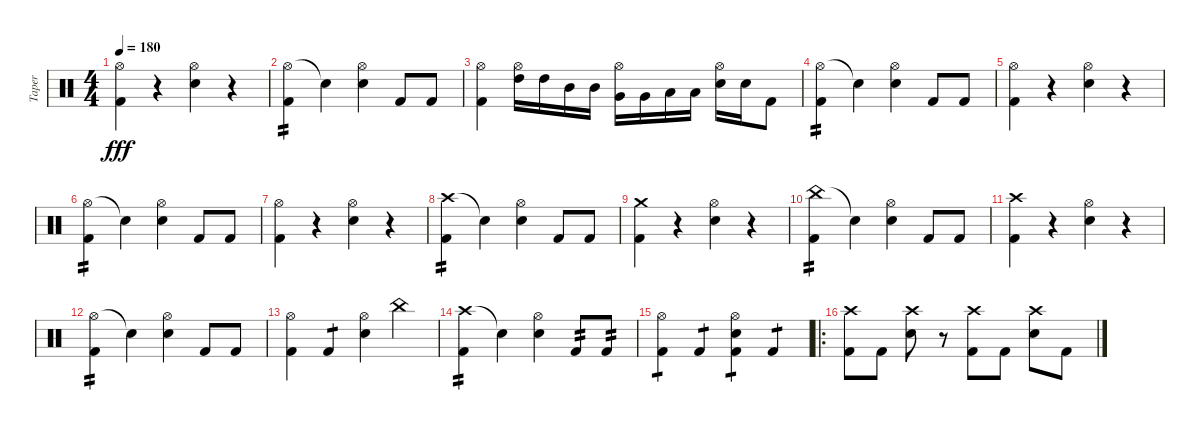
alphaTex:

\track ("Taper" "Taper") {instrument percussion}
\staff {score}
\articulation defaults
\ts (4 4)
\tempo 180
\clef neutral
\ks c
("Hi-Hat (open)" "Kick (hit) 2").4{dy fff} r.4 ("Hi-Hat (open)" "Snare (hit) 2").4 r.4 |
("Hi-Hat (open)" "Kick (hit) 2").4{tp 2} "Snare (hit)"{t}.4 ("Hi-Hat (open)" "Snare (hit) 2").4 "Kick (hit) 2".8 "Kick (hit) 2".8 |
("Hi-Hat (open)" "Kick (hit) 2").4 ("Hi-Hat (open)" "High Tom (hit)").16 "High Tom (hit)".16 "Mid Tom (hit)".16 "Mid Tom (hit)".16 ("Hi-Hat (open)" "Very Low Tom (hit)").16 "Very Low Tom (hit)".16 "Low Floor Tom (hit)".16 "Low Floor Tom (hit)".16 ("Hi-Hat (open)" "Snare (hit) 2").16 "Snare (hit) 2".16 "Kick (hit) 2".8 |
("Hi-Hat (open)" "Kick (hit) 2").4{tp 2} "Snare (hit)"{t}.4 ("Hi-Hat (open)" "Snare (hit) 2").4 "Kick (hit) 2".8 "Kick (hit) 2".8 |
("Hi-Hat (open)" "Kick (hit) 2").4 r.4 ("Hi-Hat (open)" "Snare (hit) 2").4 r.4 |
("Hi-Hat (open)" "Kick (hit) 2").4{tp 2} "Snare (hit)"{t}.4 ("Hi-Hat (open)" "Snare (hit) 2").4 "Kick (hit) 2".8 "Kick (hit) 2".8 |
("Hi-Hat (open)" "Kick (hit) 2").4 r.4 ("Hi-Hat (open)" "Snare (hit) 2").4 r.4 |
("Crash high (hit)" "Kick (hit) 2").4{tp 2} "Snare (hit)"{t}.4 ("Hi-Hat (open)" "Snare (hit) 2").4 "Kick (hit) 2".8 "Kick (hit) 2".8 |
("Crash medium (hit)" "Kick (hit) 2").4 r.4 ("Hi-Hat (open)" "Snare (hit) 2").4 r.4 |
("China (hit)" "Kick (hit) 2").4{tp 2} "Snare (hit)"{t}.4 ("Hi-Hat (open)" "Snare (hit) 2").4 "Kick (hit) 2".8 "Kick (hit) 2".8 |
("Crash high (hit)" "Kick (hit) 2").4 r.4 ("Hi-Hat (open)" "Snare (hit) 2").4 r.4 |
("Hi-Hat (open)" "Kick (hit) 2").4{tp 2} "Snare (hit)"{t}.4 ("Hi-Hat (open)" "Snare (hit) 2").4 "Kick (hit) 2".8 "Kick (hit) 2".8 |
("Hi-Hat (open)" "Kick (hit) 2").4 "Kick (hit) 2".4{tp 1} ("Hi-Hat (open)" "Snare (hit) 2").4 "China (hit)".4 |
("Crash high (hit)" "Kick (hit) 2").4{tp 2} "Snare (hit)"{t}.4 ("Hi-Hat (open)" "Snare (hit) 2").4 "Kick (hit) 2".8{tp 2} "Kick (hit) 2".8{tp 2} |
("Hi-Hat (open)" "Kick (hit) 2").4{tp 1} "Kick (hit) 2".4{tp 1} ("Hi-Hat (open)" "Snare (hit) 2" "Kick (hit) 2").4{tp 1} "Kick (hit) 2".4{tp 1} |
\ro
("Crash high (hit)" "Kick (hit) 2").8 "Kick (hit) 2".8 ("Crash high (hit)" "Snare (hit) 2").8 r.8 ("Crash high (hit)" "Kick (hit) 2").8 "Kick (hit) 2".8 ("Crash high (hit)" "Snare (hit) 2").8 "Kick (hit) 2".8
